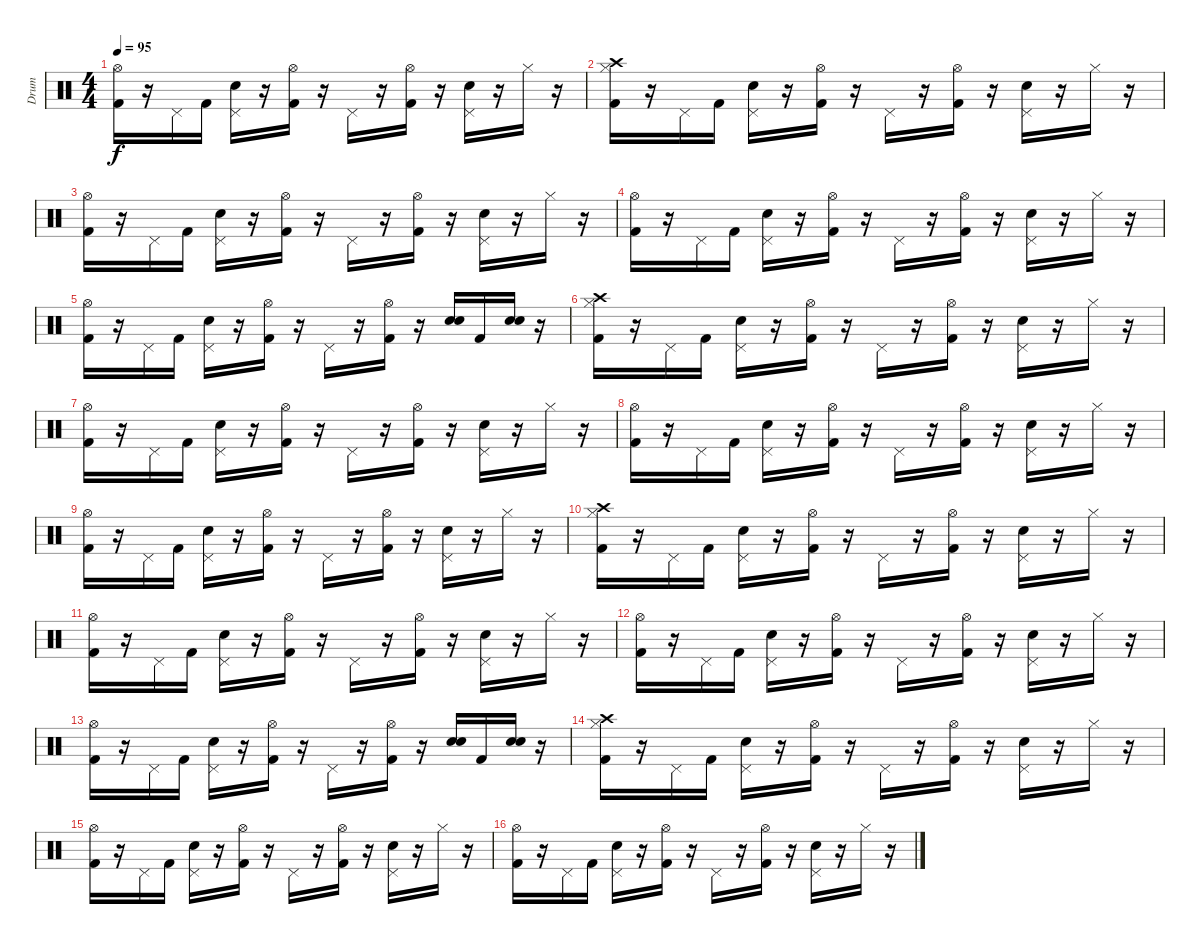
\track ("Drum" "Drum") {instrument percussion}
\staff {score}
\articulation defaults
\ts (4 4)
\tempo 95
\clef neutral
\ks c
("Hi-Hat (open)" "Kick (hit) 2").16{dy f} r.16 "Pedal Hi-Hat (hit)".16 "Kick (hit) 2".16 ("Pedal Hi-Hat (hit)" "Electric Snare (hit)").16 r.16 ("Hi-Hat (open)" "Kick (hit) 2").16 r.16 "Pedal Hi-Hat (hit)".16 r.16 ("Hi-Hat (open)" "Kick (hit) 2").16 r.16 ("Pedal Hi-Hat (hit)" "Electric Snare (hit)").16 r.16 "Hi-Hat (closed)".16 r.16 |
("Crash high (hit)" "Hi-Hat (closed)" "Kick (hit) 2").16 r.16 "Pedal Hi-Hat (hit)".16 "Kick (hit) 2".16 ("Pedal Hi-Hat (hit)" "Electric Snare (hit)").16 r.16 ("Hi-Hat (open)" "Kick (hit) 2").16 r.16 "Pedal Hi-Hat (hit)".16 r.16 ("Hi-Hat (open)" "Kick (hit) 2").16 r.16 ("Pedal Hi-Hat (hit)" "Electric Snare (hit)").16 r.16 "Hi-Hat (closed)".16 r.16 |
("Hi-Hat (open)" "Kick (hit) 2").16 r.16 "Pedal Hi-Hat (hit)".16 "Kick (hit) 2".16 ("Pedal Hi-Hat (hit)" "Electric Snare (hit)").16 r.16 ("Hi-Hat (open)" "Kick (hit) 2").16 r.16 "Pedal Hi-Hat (hit)".16 r.16 ("Hi-Hat (open)" "Kick (hit) 2").16 r.16 ("Pedal Hi-Hat (hit)" "Electric Snare (hit)").16 r.16 "Hi-Hat (closed)".16 r.16 |
("Hi-Hat (open)" "Kick (hit) 2").16 r.16 "Pedal Hi-Hat (hit)".16 "Kick (hit) 2".16 ("Pedal Hi-Hat (hit)" "Electric Snare (hit)").16 r.16 ("Hi-Hat (open)" "Kick (hit) 2").16 r.16 "Pedal Hi-Hat (hit)".16 r.16 ("Hi-Hat (open)" "Kick (hit) 2").16 r.16 ("Pedal Hi-Hat (hit)" "Electric Snare (hit)").16 r.16 "Hi-Hat (closed)".16 r.16 |
("Hi-Hat (open)" "Kick (hit) 2").16 r.16 "Pedal Hi-Hat (hit)".16 "Kick (hit) 2".16 ("Pedal Hi-Hat (hit)" "Electric Snare (hit)").16 r.16 ("Hi-Hat (open)" "Kick (hit) 2").16 r.16 "Pedal Hi-Hat (hit)".16 r.16 ("Hi-Hat (open)" "Kick (hit) 2").16 r.16 ("Electric Snare (hit)" "Electric Snare (hit)").16{bd 60} "Kick (hit) 2".16 ("Electric Snare (hit)" "Electric Snare (hit)").16{bd 60} r.16 |
("Crash high (hit)" "Hi-Hat (closed)" "Kick (hit) 2").16 r.16 "Pedal Hi-Hat (hit)".16 "Kick (hit) 2".16 ("Pedal Hi-Hat (hit)" "Electric Snare (hit)").16 r.16 ("Hi-Hat (open)" "Kick (hit) 2").16 r.16 "Pedal Hi-Hat (hit)".16 r.16 ("Hi-Hat (open)" "Kick (hit) 2").16 r.16 ("Pedal Hi-Hat (hit)" "Electric Snare (hit)").16 r.16 "Hi-Hat (closed)".16 r.16 |
("Hi-Hat (open)" "Kick (hit) 2").16 r.16 "Pedal Hi-Hat (hit)".16 "Kick (hit) 2".16 ("Pedal Hi-Hat (hit)" "Electric Snare (hit)").16 r.16 ("Hi-Hat (open)" "Kick (hit) 2").16 r.16 "Pedal Hi-Hat (hit)".16 r.16 ("Hi-Hat (open)" "Kick (hit) 2").16 r.16 ("Pedal Hi-Hat (hit)" "Electric Snare (hit)").16 r.16 "Hi-Hat (closed)".16 r.16 |
("Hi-Hat (open)" "Kick (hit) 2").16 r.16 "Pedal Hi-Hat (hit)".16 "Kick (hit) 2".16 ("Pedal Hi-Hat (hit)" "Electric Snare (hit)").16 r.16 ("Hi-Hat (open)" "Kick (hit) 2").16 r.16 "Pedal Hi-Hat (hit)".16 r.16 ("Hi-Hat (open)" "Kick (hit) 2").16 r.16 ("Pedal Hi-Hat (hit)" "Electric Snare (hit)").16 r.16 "Hi-Hat (closed)".16 r.16 |
("Hi-Hat (open)" "Kick (hit) 2").16 r.16 "Pedal Hi-Hat (hit)".16 "Kick (hit) 2".16 ("Pedal Hi-Hat (hit)" "Electric Snare (hit)").16 r.16 ("Hi-Hat (open)" "Kick (hit) 2").16 r.16 "Pedal Hi-Hat (hit)".16 r.16 ("Hi-Hat (open)" "Kick (hit) 2").16 r.16 ("Pedal Hi-Hat (hit)" "Electric Snare (hit)").16 r.16 "Hi-Hat (closed)".16 r.16 |
("Crash high (hit)" "Hi-Hat (closed)" "Kick (hit) 2").16 r.16 "Pedal Hi-Hat (hit)".16 "Kick (hit) 2".16 ("Pedal Hi-Hat (hit)" "Electric Snare (hit)").16 r.16 ("Hi-Hat (open)" "Kick (hit) 2").16 r.16 "Pedal Hi-Hat (hit)".16 r.16 ("Hi-Hat (open)" "Kick (hit) 2").16 r.16 ("Pedal Hi-Hat (hit)" "Electric Snare (hit)").16 r.16 "Hi-Hat (closed)".16 r.16 |
("Hi-Hat (open)" "Kick (hit) 2").16 r.16 "Pedal Hi-Hat (hit)".16 "Kick (hit) 2".16 ("Pedal Hi-Hat (hit)" "Electric Snare (hit)").16 r.16 ("Hi-Hat (open)" "Kick (hit) 2").16 r.16 "Pedal Hi-Hat (hit)".16 r.16 ("Hi-Hat (open)" "Kick (hit) 2").16 r.16 ("Pedal Hi-Hat (hit)" "Electric Snare (hit)").16 r.16 "Hi-Hat (closed)".16 r.16 |
("Hi-Hat (open)" "Kick (hit) 2").16 r.16 "Pedal Hi-Hat (hit)".16 "Kick (hit) 2".16 ("Pedal Hi-Hat (hit)" "Electric Snare (hit)").16 r.16 ("Hi-Hat (open)" "Kick (hit) 2").16 r.16 "Pedal Hi-Hat (hit)".16 r.16 ("Hi-Hat (open)" "Kick (hit) 2").16 r.16 ("Pedal Hi-Hat (hit)" "Electric Snare (hit)").16 r.16 "Hi-Hat (closed)".16 r.16 |
("Hi-Hat (open)" "Kick (hit) 2").16 r.16 "Pedal Hi-Hat (hit)".16 "Kick (hit) 2".16 ("Pedal Hi-Hat (hit)" "Electric Snare (hit)").16 r.16 ("Hi-Hat (open)" "Kick (hit) 2").16 r.16 "Pedal Hi-Hat (hit)".16 r.16 ("Hi-Hat (open)" "Kick (hit) 2").16 r.16 ("Electric Snare (hit)" "Electric Snare (hit)").16{bd 60} "Kick (hit) 2".16 ("Electric Snare (hit)" "Electric Snare (hit)").16{bd 60} r.16 |
("Crash high (hit)" "Hi-Hat (closed)" "Kick (hit) 2").16 r.16 "Pedal Hi-Hat (hit)".16 "Kick (hit) 2".16 ("Pedal Hi-Hat (hit)" "Electric Snare (hit)").16 r.16 ("Hi-Hat (open)" "Kick (hit) 2").16 r.16 "Pedal Hi-Hat (hit)".16 r.16 ("Hi-Hat (open)" "Kick (hit) 2").16 r.16 ("Pedal Hi-Hat (hit)" "Electric Snare (hit)").16 r.16 "Hi-Hat (closed)".16 r.16 |
("Hi-Hat (open)" "Kick (hit) 2").16 r.16 "Pedal Hi-Hat (hit)".16 "Kick (hit) 2".16 ("Pedal Hi-Hat (hit)" "Electric Snare (hit)").16 r.16 ("Hi-Hat (open)" "Kick (hit) 2").16 r.16 "Pedal Hi-Hat (hit)".16 r.16 ("Hi-Hat (open)" "Kick (hit) 2").16 r.16 ("Pedal Hi-Hat (hit)" "Electric Snare (hit)").16 r.16 "Hi-Hat (closed)".16 r.16 |
("Hi-Hat (open)" "Kick (hit) 2").16 r.16 "Pedal Hi-Hat (hit)".16 "Kick (hit) 2".16 ("Pedal Hi-Hat (hit)" "Electric Snare (hit)").16 r.16 ("Hi-Hat (open)" "Kick (hit) 2").16 r.16 "Pedal Hi-Hat (hit)".16 r.16 ("Hi-Hat (open)" "Kick (hit) 2").16 r.16 ("Pedal Hi-Hat (hit)" "Electric Snare (hit)").16 r.16 "Hi-Hat (closed)".16 r.16
